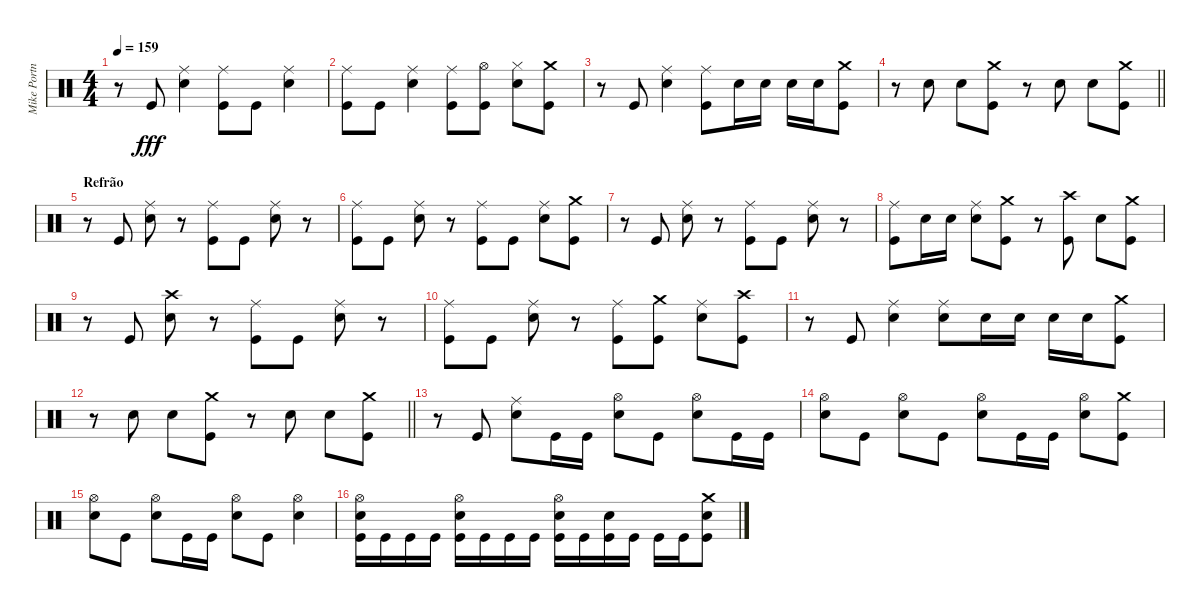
\track ("Mike Portnoy" "Mike Portn") {instrument percussion}
\staff {score}
\articulation defaults
\ts (4 4)
\tempo 159
\clef neutral
\ks c
r.8{dy fff} "Kick (hit)".8 ("Ride (middle)" "Electric Snare (hit)").4 ("Ride (middle)" "Kick (hit)").8 "Kick (hit)".8 ("Ride (middle)" "Electric Snare (hit)").4 |
("Ride (middle)" "Kick (hit)").8 "Kick (hit)".8 ("Ride (middle)" "Electric Snare (hit)").4 ("Ride (middle)" "Kick (hit)").8 ("Hi-Hat (open)" "Kick (hit)").8 ("Hi-Hat (closed)" "Electric Snare (hit)").8 ("Crash medium (hit)" "Kick (hit)").8 |
r.8 "Kick (hit)".8 ("Ride (middle)" "Electric Snare (hit)").4 ("Ride (middle)" "Kick (hit)").8 "Electric Snare (hit)".16 "Electric Snare (hit)".16 "Electric Snare (hit)".16 "Electric Snare (hit)".16 ("Crash medium (hit)" "Kick (hit)").8 |
\barLineRight lightlight
r.8 "Electric Snare (hit)".8 "Electric Snare (hit)".8 ("Crash medium (hit)" "Kick (hit)").8 r.8 "Electric Snare (hit)".8 "Electric Snare (hit)".8 ("Crash medium (hit)" "Kick (hit)").8 |
\section ("" "Refrão")
r.8 "Kick (hit)".8 ("Ride (middle)" "Electric Snare (hit)").8 r.8 ("Ride (middle)" "Kick (hit)").8 "Kick (hit)".8 ("Ride (middle)" "Electric Snare (hit)").8 r.8 |
("Ride (middle)" "Kick (hit)").8 "Kick (hit)".8 ("Ride (middle)" "Electric Snare (hit)").8 r.8 ("Ride (middle)" "Kick (hit)").8 "Kick (hit)".8 ("Ride (middle)" "Electric Snare (hit)").8 ("Crash medium (hit)" "Kick (hit)").8 |
r.8 "Kick (hit)".8 ("Ride (middle)" "Electric Snare (hit)").8 r.8 ("Ride (middle)" "Kick (hit)").8 "Kick (hit)".8 ("Ride (middle)" "Electric Snare (hit)").8 r.8 |
("Ride (middle)" "Kick (hit)").8 "Electric Snare (hit)".16 "Electric Snare (hit)".16 ("Ride (middle)" "Electric Snare (hit)").8 ("Crash medium (hit)" "Kick (hit)").8 r.8 ("Crash high (hit)" "Kick (hit)").8 "Electric Snare (hit)".8 ("Crash medium (hit)" "Kick (hit)").8 |
r.8 "Kick (hit)".8 ("Crash high (hit)" "Electric Snare (hit)").8 r.8 ("Ride (middle)" "Kick (hit)").8 "Kick (hit)".8 ("Ride (middle)" "Electric Snare (hit)").8 r.8 |
("Ride (middle)" "Kick (hit)").8 "Kick (hit)".8 ("Ride (middle)" "Electric Snare (hit)").8 r.8 ("Ride (middle)" "Kick (hit)").8 ("Crash medium (hit)" "Kick (hit)").8 ("Ride (middle)" "Electric Snare (hit)").8 ("Crash high (hit)" "Kick (hit)").8 |
r.8 "Kick (hit)".8 ("Ride (middle)" "Electric Snare (hit)").4 ("Ride (middle)" "Electric Snare (hit)").8 "Electric Snare (hit)".16 "Electric Snare (hit)".16 "Electric Snare (hit)".16 "Electric Snare (hit)".16 ("Crash medium (hit)" "Kick (hit)").8 |
\barLineRight lightlight
r.8 "Electric Snare (hit)".8 "Electric Snare (hit)".8 ("Crash medium (hit)" "Kick (hit)").8 r.8 "Electric Snare (hit)".8 "Electric Snare (hit)".8 ("Crash medium (hit)" "Kick (hit)").8 |
r.8 "Kick (hit)".8 ("Ride (middle)" "Electric Snare (hit)").8 "Kick (hit)".16 "Kick (hit)".16 ("Hi-Hat (open)" "Electric Snare (hit)").8 "Kick (hit)".8 ("Hi-Hat (open)" "Electric Snare (hit)").8 "Kick (hit)".16 "Kick (hit)".16 |
("Hi-Hat (open)" "Electric Snare (hit)").8 "Kick (hit)".8 ("Hi-Hat (open)" "Electric Snare (hit)").8 "Kick (hit)".8 ("Hi-Hat (open)" "Electric Snare (hit)").8 "Kick (hit)".16 "Kick (hit)".16 ("Hi-Hat (open)" "Electric Snare (hit)").8 ("Crash medium (hit)" "Kick (hit)").8 |
("Hi-Hat (open)" "Electric Snare (hit)").8 "Kick (hit)".8 ("Hi-Hat (open)" "Electric Snare (hit)").8 "Kick (hit)".16 "Kick (hit)".16 ("Hi-Hat (open)" "Electric Snare (hit)").8 "Kick (hit)".8 ("Hi-Hat (open)" "Electric Snare (hit)").4 |
("Hi-Hat (open)" "Electric Snare (hit)" "Kick (hit)").16 "Kick (hit)".16 "Kick (hit)".16 "Kick (hit)".16 ("Hi-Hat (open)" "Electric Snare (hit)" "Kick (hit)").16 "Kick (hit)".16 "Kick (hit)".16 "Kick (hit)".16 ("Hi-Hat (open)" "Electric Snare (hit)" "Kick (hit)").16 "Kick (hit)".16 ("Electric Snare (hit)" "Kick (hit)").16 "Kick (hit)".16 "Kick (hit)".16 "Kick (hit)".16 ("Crash medium (hit)" "Electric Snare (hit)" "Kick (hit)").8
